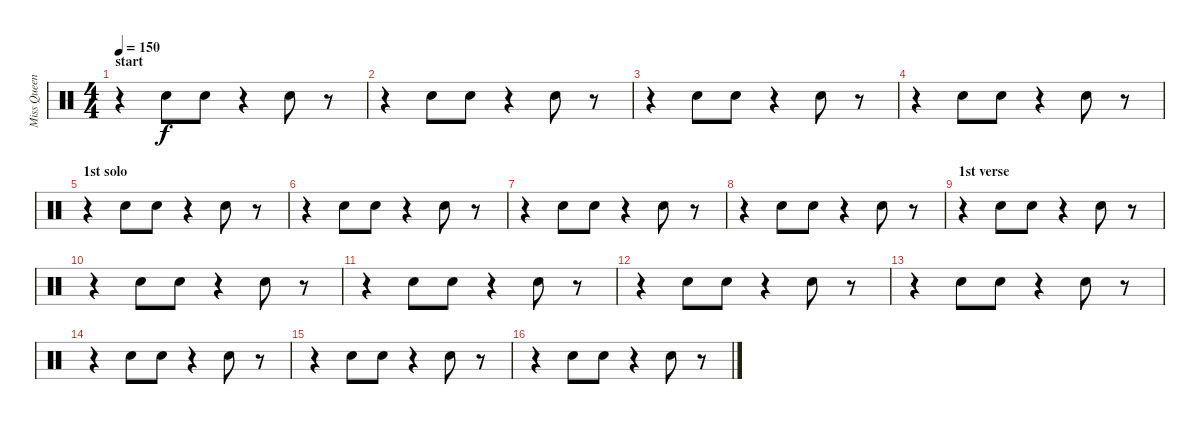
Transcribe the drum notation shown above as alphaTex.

\track ("Miss Queen B(rodie)" "Miss Queen") {instrument percussion}
\staff {score}
\articulation defaults
\ts (4 4)
\section ("" "start")
\tempo 150
\clef neutral
\ks c
r.4{dy f} "Hand Clap (hit)".8 "Hand Clap (hit)".8 r.4 "Hand Clap (hit)".8 r.8 |
r.4 "Hand Clap (hit)".8 "Hand Clap (hit)".8 r.4 "Hand Clap (hit)".8 r.8 |
r.4 "Hand Clap (hit)".8 "Hand Clap (hit)".8 r.4 "Hand Clap (hit)".8 r.8 |
r.4 "Hand Clap (hit)".8 "Hand Clap (hit)".8 r.4 "Hand Clap (hit)".8 r.8 |
\section ("" "1st solo")
r.4 "Hand Clap (hit)".8 "Hand Clap (hit)".8 r.4 "Hand Clap (hit)".8 r.8 |
r.4 "Hand Clap (hit)".8 "Hand Clap (hit)".8 r.4 "Hand Clap (hit)".8 r.8 |
r.4 "Hand Clap (hit)".8 "Hand Clap (hit)".8 r.4 "Hand Clap (hit)".8 r.8 |
r.4 "Hand Clap (hit)".8 "Hand Clap (hit)".8 r.4 "Hand Clap (hit)".8 r.8 |
\section ("" "1st verse")
r.4 "Hand Clap (hit)".8 "Hand Clap (hit)".8 r.4 "Hand Clap (hit)".8 r.8 |
r.4 "Hand Clap (hit)".8 "Hand Clap (hit)".8 r.4 "Hand Clap (hit)".8 r.8 |
r.4 "Hand Clap (hit)".8 "Hand Clap (hit)".8 r.4 "Hand Clap (hit)".8 r.8 |
r.4 "Hand Clap (hit)".8 "Hand Clap (hit)".8 r.4 "Hand Clap (hit)".8 r.8 |
\section ("" "")
r.4 "Hand Clap (hit)".8 "Hand Clap (hit)".8 r.4 "Hand Clap (hit)".8 r.8 |
r.4 "Hand Clap (hit)".8 "Hand Clap (hit)".8 r.4 "Hand Clap (hit)".8 r.8 |
r.4 "Hand Clap (hit)".8 "Hand Clap (hit)".8 r.4 "Hand Clap (hit)".8 r.8 |
r.4 "Hand Clap (hit)".8 "Hand Clap (hit)".8 r.4 "Hand Clap (hit)".8 r.8
